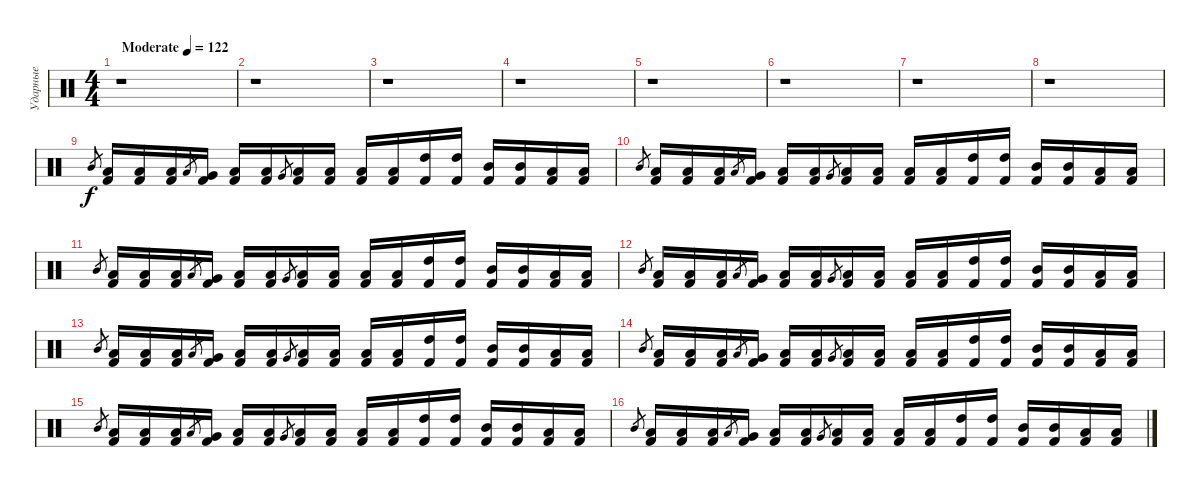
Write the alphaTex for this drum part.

\track ("Ударные" "Ударные") {instrument percussion}
\staff {score}
\articulation defaults
\ts (4 4)
\tempo (122 "Moderate")
\clef neutral
\ks c
r.1{dy f} |
r.1 |
r.1 |
r.1 |
r.1 |
r.1 |
r.1 |
r.1 |
"Mid Tom (hit)".8{gr} ("Low Tom (hit)" "Kick (hit) 2").16 ("Low Floor Tom (hit)" "Kick (hit) 2").16 ("Low Floor Tom (hit)" "Kick (hit) 2").16 "Low Tom (hit)".8{gr} ("Very Low Tom (hit)" "Kick (hit) 2").16 ("Low Floor Tom (hit)" "Kick (hit) 2").16 ("Low Floor Tom (hit)" "Kick (hit) 2").16 "Very Low Tom (hit)".8{gr} ("Low Floor Tom (hit)" "Kick (hit) 2").16 ("Low Floor Tom (hit)" "Kick (hit) 2").16 ("Low Floor Tom (hit)" "Kick (hit) 2").16 ("Low Floor Tom (hit)" "Kick (hit) 2").16 ("High Tom (hit)" "Kick (hit) 2").16 ("High Tom (hit)" "Kick (hit) 2").16 ("Mid Tom (hit)" "Kick (hit) 2").16 ("Mid Tom (hit)" "Kick (hit) 2").16 ("Low Tom (hit)" "Kick (hit) 2").16 ("Low Tom (hit)" "Kick (hit) 2").16 |
"Mid Tom (hit)".8{gr} ("Low Tom (hit)" "Kick (hit) 2").16 ("Low Floor Tom (hit)" "Kick (hit) 2").16 ("Low Floor Tom (hit)" "Kick (hit) 2").16 "Low Tom (hit)".8{gr} ("Very Low Tom (hit)" "Kick (hit) 2").16 ("Low Floor Tom (hit)" "Kick (hit) 2").16 ("Low Floor Tom (hit)" "Kick (hit) 2").16 "Very Low Tom (hit)".8{gr} ("Low Floor Tom (hit)" "Kick (hit) 2").16 ("Low Floor Tom (hit)" "Kick (hit) 2").16 ("Low Floor Tom (hit)" "Kick (hit) 2").16 ("Low Floor Tom (hit)" "Kick (hit) 2").16 ("High Tom (hit)" "Kick (hit) 2").16 ("High Tom (hit)" "Kick (hit) 2").16 ("Mid Tom (hit)" "Kick (hit) 2").16 ("Mid Tom (hit)" "Kick (hit) 2").16 ("Low Tom (hit)" "Kick (hit) 2").16 ("Low Tom (hit)" "Kick (hit) 2").16 |
"Mid Tom (hit)".8{gr} ("Low Tom (hit)" "Kick (hit) 2").16 ("Low Floor Tom (hit)" "Kick (hit) 2").16 ("Low Floor Tom (hit)" "Kick (hit) 2").16 "Low Tom (hit)".8{gr} ("Very Low Tom (hit)" "Kick (hit) 2").16 ("Low Floor Tom (hit)" "Kick (hit) 2").16 ("Low Floor Tom (hit)" "Kick (hit) 2").16 "Very Low Tom (hit)".8{gr} ("Low Floor Tom (hit)" "Kick (hit) 2").16 ("Low Floor Tom (hit)" "Kick (hit) 2").16 ("Low Floor Tom (hit)" "Kick (hit) 2").16 ("Low Floor Tom (hit)" "Kick (hit) 2").16 ("High Tom (hit)" "Kick (hit) 2").16 ("High Tom (hit)" "Kick (hit) 2").16 ("Mid Tom (hit)" "Kick (hit) 2").16 ("Mid Tom (hit)" "Kick (hit) 2").16 ("Low Tom (hit)" "Kick (hit) 2").16 ("Low Tom (hit)" "Kick (hit) 2").16 |
"Mid Tom (hit)".8{gr} ("Low Tom (hit)" "Kick (hit) 2").16 ("Low Floor Tom (hit)" "Kick (hit) 2").16 ("Low Floor Tom (hit)" "Kick (hit) 2").16 "Low Tom (hit)".8{gr} ("Very Low Tom (hit)" "Kick (hit) 2").16 ("Low Floor Tom (hit)" "Kick (hit) 2").16 ("Low Floor Tom (hit)" "Kick (hit) 2").16 "Very Low Tom (hit)".8{gr} ("Low Floor Tom (hit)" "Kick (hit) 2").16 ("Low Floor Tom (hit)" "Kick (hit) 2").16 ("Low Floor Tom (hit)" "Kick (hit) 2").16 ("Low Floor Tom (hit)" "Kick (hit) 2").16 ("High Tom (hit)" "Kick (hit) 2").16 ("High Tom (hit)" "Kick (hit) 2").16 ("Mid Tom (hit)" "Kick (hit) 2").16 ("Mid Tom (hit)" "Kick (hit) 2").16 ("Low Tom (hit)" "Kick (hit) 2").16 ("Low Tom (hit)" "Kick (hit) 2").16 |
"Mid Tom (hit)".8{gr} ("Low Tom (hit)" "Kick (hit) 2").16 ("Low Floor Tom (hit)" "Kick (hit) 2").16 ("Low Floor Tom (hit)" "Kick (hit) 2").16 "Low Tom (hit)".8{gr} ("Very Low Tom (hit)" "Kick (hit) 2").16 ("Low Floor Tom (hit)" "Kick (hit) 2").16 ("Low Floor Tom (hit)" "Kick (hit) 2").16 "Very Low Tom (hit)".8{gr} ("Low Floor Tom (hit)" "Kick (hit) 2").16 ("Low Floor Tom (hit)" "Kick (hit) 2").16 ("Low Floor Tom (hit)" "Kick (hit) 2").16 ("Low Floor Tom (hit)" "Kick (hit) 2").16 ("High Tom (hit)" "Kick (hit) 2").16 ("High Tom (hit)" "Kick (hit) 2").16 ("Mid Tom (hit)" "Kick (hit) 2").16 ("Mid Tom (hit)" "Kick (hit) 2").16 ("Low Tom (hit)" "Kick (hit) 2").16 ("Low Tom (hit)" "Kick (hit) 2").16 |
"Mid Tom (hit)".8{gr} ("Low Tom (hit)" "Kick (hit) 2").16 ("Low Floor Tom (hit)" "Kick (hit) 2").16 ("Low Floor Tom (hit)" "Kick (hit) 2").16 "Low Tom (hit)".8{gr} ("Very Low Tom (hit)" "Kick (hit) 2").16 ("Low Floor Tom (hit)" "Kick (hit) 2").16 ("Low Floor Tom (hit)" "Kick (hit) 2").16 "Very Low Tom (hit)".8{gr} ("Low Floor Tom (hit)" "Kick (hit) 2").16 ("Low Floor Tom (hit)" "Kick (hit) 2").16 ("Low Floor Tom (hit)" "Kick (hit) 2").16 ("Low Floor Tom (hit)" "Kick (hit) 2").16 ("High Tom (hit)" "Kick (hit) 2").16 ("High Tom (hit)" "Kick (hit) 2").16 ("Mid Tom (hit)" "Kick (hit) 2").16 ("Mid Tom (hit)" "Kick (hit) 2").16 ("Low Tom (hit)" "Kick (hit) 2").16 ("Low Tom (hit)" "Kick (hit) 2").16 |
"Mid Tom (hit)".8{gr} ("Low Tom (hit)" "Kick (hit) 2").16 ("Low Floor Tom (hit)" "Kick (hit) 2").16 ("Low Floor Tom (hit)" "Kick (hit) 2").16 "Low Tom (hit)".8{gr} ("Very Low Tom (hit)" "Kick (hit) 2").16 ("Low Floor Tom (hit)" "Kick (hit) 2").16 ("Low Floor Tom (hit)" "Kick (hit) 2").16 "Very Low Tom (hit)".8{gr} ("Low Floor Tom (hit)" "Kick (hit) 2").16 ("Low Floor Tom (hit)" "Kick (hit) 2").16 ("Low Floor Tom (hit)" "Kick (hit) 2").16 ("Low Floor Tom (hit)" "Kick (hit) 2").16 ("High Tom (hit)" "Kick (hit) 2").16 ("High Tom (hit)" "Kick (hit) 2").16 ("Mid Tom (hit)" "Kick (hit) 2").16 ("Mid Tom (hit)" "Kick (hit) 2").16 ("Low Tom (hit)" "Kick (hit) 2").16 ("Low Tom (hit)" "Kick (hit) 2").16 |
"Mid Tom (hit)".8{gr} ("Low Tom (hit)" "Kick (hit) 2").16 ("Low Floor Tom (hit)" "Kick (hit) 2").16 ("Low Floor Tom (hit)" "Kick (hit) 2").16 "Low Tom (hit)".8{gr} ("Very Low Tom (hit)" "Kick (hit) 2").16 ("Low Floor Tom (hit)" "Kick (hit) 2").16 ("Low Floor Tom (hit)" "Kick (hit) 2").16 "Very Low Tom (hit)".8{gr} ("Low Floor Tom (hit)" "Kick (hit) 2").16 ("Low Floor Tom (hit)" "Kick (hit) 2").16 ("Low Floor Tom (hit)" "Kick (hit) 2").16 ("Low Floor Tom (hit)" "Kick (hit) 2").16 ("High Tom (hit)" "Kick (hit) 2").16 ("High Tom (hit)" "Kick (hit) 2").16 ("Mid Tom (hit)" "Kick (hit) 2").16 ("Mid Tom (hit)" "Kick (hit) 2").16 ("Low Tom (hit)" "Kick (hit) 2").16 ("Low Tom (hit)" "Kick (hit) 2").16
